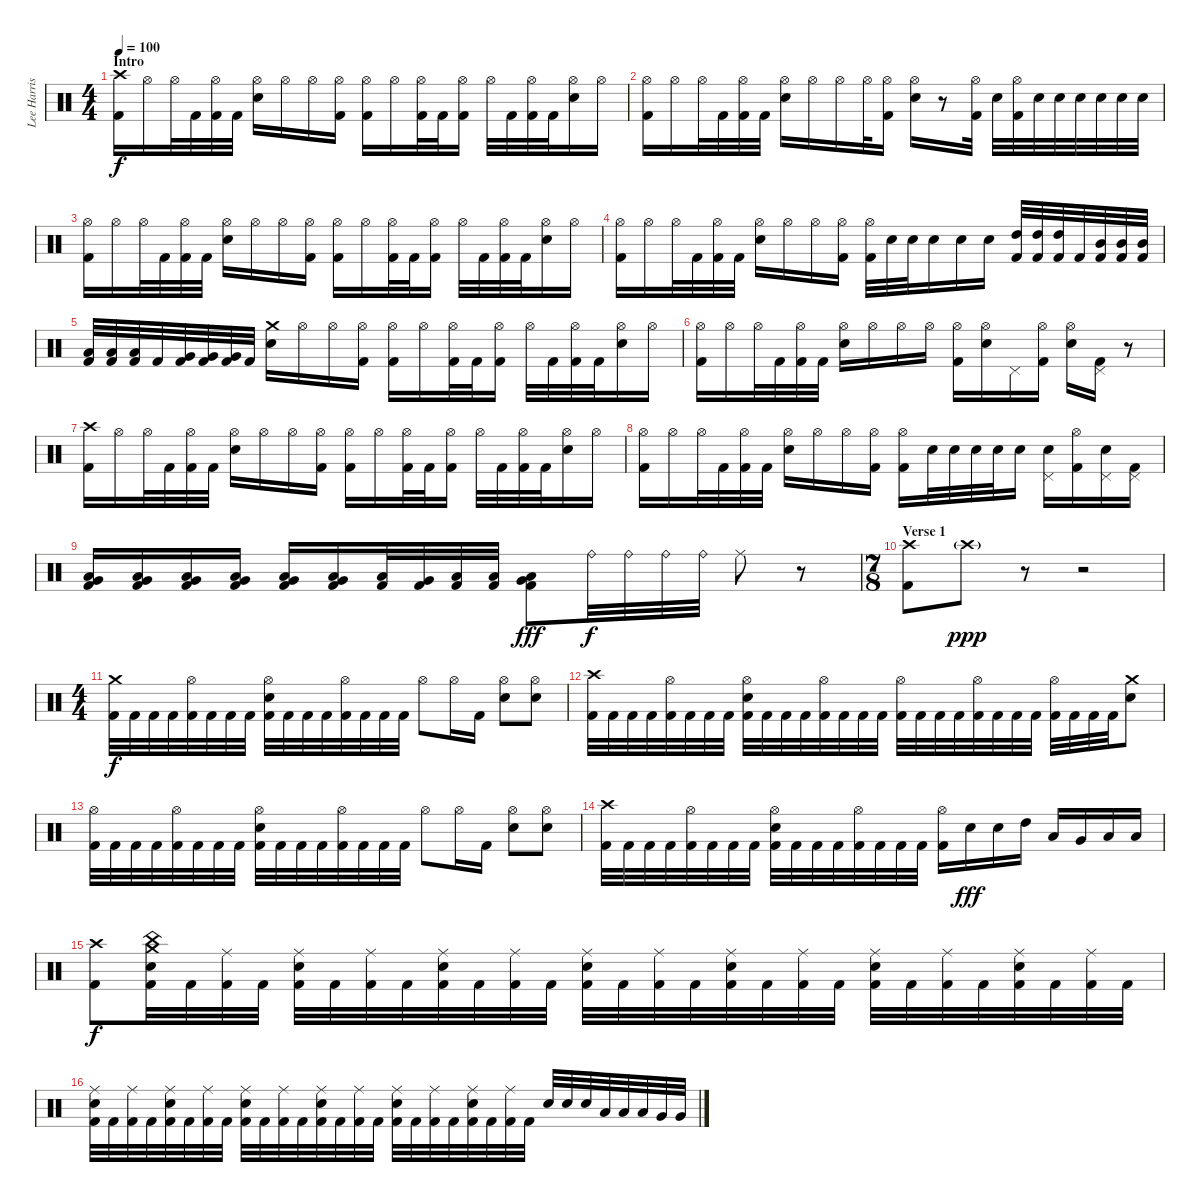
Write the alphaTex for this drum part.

\track ("Lee Harrison" "Lee Harris") {instrument percussion}
\staff {score}
\articulation defaults
\ts (4 4)
\section ("" "Intro")
\tempo 100
\clef neutral
\ks c
("Crash high (hit)" "Kick (hit) 2").16{dy f} "Hi-Hat (open)".16 "Hi-Hat (open)".32 "Kick (hit) 2".32 ("Hi-Hat (open)" "Kick (hit) 2").32 "Kick (hit) 2".32 ("Hi-Hat (open)" "Electric Snare (hit)").16 "Hi-Hat (open)".16 "Hi-Hat (open)".16 ("Hi-Hat (open)" "Kick (hit) 2").16 ("Hi-Hat (open)" "Kick (hit) 2").16 "Hi-Hat (open)".16 ("Hi-Hat (open)" "Kick (hit) 2").32 "Kick (hit) 2".32 ("Hi-Hat (open)" "Kick (hit) 2").16 "Hi-Hat (open)".32 "Kick (hit) 2".32 ("Hi-Hat (open)" "Kick (hit) 2").32 "Kick (hit) 2".32 ("Hi-Hat (open)" "Electric Snare (hit)").16 "Hi-Hat (open)".16 |
("Hi-Hat (open)" "Kick (hit) 2").16 "Hi-Hat (open)".16 "Hi-Hat (open)".32 "Kick (hit) 2".32 ("Hi-Hat (open)" "Kick (hit) 2").32 "Kick (hit) 2".32 ("Hi-Hat (open)" "Electric Snare (hit)").16 "Hi-Hat (open)".16 "Hi-Hat (open)".16 "Hi-Hat (open)".32 ("Hi-Hat (open)" "Kick (hit) 2").16 ("Hi-Hat (open)" "Electric Snare (hit)").16 r.8 ("Hi-Hat (open)" "Kick (hit) 2").32 "Electric Snare (hit)".32 ("Hi-Hat (open)" "Kick (hit) 2").32 "Electric Snare (hit)".32 "Electric Snare (hit)".32 "Electric Snare (hit)".32 "Electric Snare (hit)".32 "Electric Snare (hit)".32 "Electric Snare (hit)".32 |
("Hi-Hat (open)" "Kick (hit) 2").16 "Hi-Hat (open)".16 "Hi-Hat (open)".32 "Kick (hit) 2".32 ("Hi-Hat (open)" "Kick (hit) 2").32 "Kick (hit) 2".32 ("Hi-Hat (open)" "Electric Snare (hit)").16 "Hi-Hat (open)".16 "Hi-Hat (open)".16 ("Hi-Hat (open)" "Kick (hit) 2").16 ("Hi-Hat (open)" "Kick (hit) 2").16 "Hi-Hat (open)".16 ("Hi-Hat (open)" "Kick (hit) 2").32 "Kick (hit) 2".32 ("Hi-Hat (open)" "Kick (hit) 2").16 "Hi-Hat (open)".32 "Kick (hit) 2".32 ("Hi-Hat (open)" "Kick (hit) 2").32 "Kick (hit) 2".32 ("Hi-Hat (open)" "Electric Snare (hit)").16 "Hi-Hat (open)".16 |
("Hi-Hat (open)" "Kick (hit) 2").16 "Hi-Hat (open)".16 "Hi-Hat (open)".32 "Kick (hit) 2".32 ("Hi-Hat (open)" "Kick (hit) 2").32 "Kick (hit) 2".32 ("Hi-Hat (open)" "Electric Snare (hit)").16 "Hi-Hat (open)".16 "Hi-Hat (open)".16 ("Hi-Hat (open)" "Kick (hit) 2").16 ("Hi-Hat (open)" "Kick (hit) 2").32 "Electric Snare (hit)".32 "Electric Snare (hit)".32 "Electric Snare (hit)".16 "Electric Snare (hit)".16 "Electric Snare (hit)".16 ("High Tom (hit)" "Kick (hit) 2").32 ("High Tom (hit)" "Kick (hit) 2").32 ("High Tom (hit)" "Kick (hit) 2").32 "Kick (hit) 2".32 ("Mid Tom (hit)" "Kick (hit) 2").32 ("Mid Tom (hit)" "Kick (hit) 2").32 ("Mid Tom (hit)" "Kick (hit) 2").32 |
("Low Tom (hit)" "Kick (hit) 2").32 ("Low Tom (hit)" "Kick (hit) 2").32 ("Low Tom (hit)" "Kick (hit) 2").32 "Kick (hit) 2".32 ("Very Low Tom (hit)" "Kick (hit) 2").32 ("Very Low Tom (hit)" "Kick (hit) 2").32 ("Very Low Tom (hit)" "Kick (hit) 2").32 "Kick (hit) 2".32 ("Crash medium (hit)" "Electric Snare (hit)").16 "Hi-Hat (open)".16 "Hi-Hat (open)".16 ("Hi-Hat (open)" "Kick (hit) 2").16 ("Hi-Hat (open)" "Kick (hit) 2").16 "Hi-Hat (open)".16 ("Hi-Hat (open)" "Kick (hit) 2").32 "Kick (hit) 2".32 ("Hi-Hat (open)" "Kick (hit) 2").16 "Hi-Hat (open)".32 "Kick (hit) 2".32 ("Hi-Hat (open)" "Kick (hit) 2").32 "Kick (hit) 2".32 ("Hi-Hat (open)" "Electric Snare (hit)").16 "Hi-Hat (open)".16 |
("Hi-Hat (open)" "Kick (hit) 2").16 "Hi-Hat (open)".16 "Hi-Hat (open)".32 "Kick (hit) 2".32 ("Hi-Hat (open)" "Kick (hit) 2").32 "Kick (hit) 2".32 ("Hi-Hat (open)" "Electric Snare (hit)").16 "Hi-Hat (open)".16 "Hi-Hat (open)".16 "Hi-Hat (open)".16 ("Hi-Hat (open)" "Kick (hit) 2").16 ("Hi-Hat (open)" "Electric Snare (hit)").16 "Pedal Hi-Hat (hit)".16 ("Hi-Hat (open)" "Kick (hit) 2").16 ("Hi-Hat (open)" "Electric Snare (hit)").16 ("Pedal Hi-Hat (hit)" "Kick (hit) 2").16 r.8 |
("Crash high (hit)" "Kick (hit) 2").16 "Hi-Hat (open)".16 "Hi-Hat (open)".32 "Kick (hit) 2".32 ("Hi-Hat (open)" "Kick (hit) 2").32 "Kick (hit) 2".32 ("Hi-Hat (open)" "Electric Snare (hit)").16 "Hi-Hat (open)".16 "Hi-Hat (open)".16 ("Hi-Hat (open)" "Kick (hit) 2").16 ("Hi-Hat (open)" "Kick (hit) 2").16 "Hi-Hat (open)".16 ("Hi-Hat (open)" "Kick (hit) 2").32 "Kick (hit) 2".32 ("Hi-Hat (open)" "Kick (hit) 2").16 "Hi-Hat (open)".32 "Kick (hit) 2".32 ("Hi-Hat (open)" "Kick (hit) 2").32 "Kick (hit) 2".32 ("Hi-Hat (open)" "Electric Snare (hit)").16 "Hi-Hat (open)".16 |
("Hi-Hat (open)" "Kick (hit) 2").16 "Hi-Hat (open)".16 "Hi-Hat (open)".32 "Kick (hit) 2".32 ("Hi-Hat (open)" "Kick (hit) 2").32 "Kick (hit) 2".32 ("Hi-Hat (open)" "Electric Snare (hit)").16 "Hi-Hat (open)".16 "Hi-Hat (open)".16 ("Hi-Hat (open)" "Kick (hit) 2").16 ("Hi-Hat (open)" "Kick (hit) 2").16 "Electric Snare (hit)".32 "Electric Snare (hit)".32 "Electric Snare (hit)".32 "Electric Snare (hit)".32 "Electric Snare (hit)".16 ("Pedal Hi-Hat (hit)" "Electric Snare (hit)").16 ("Hi-Hat (open)" "Kick (hit) 2").16 ("Pedal Hi-Hat (hit)" "Electric Snare (hit)").16 ("Pedal Hi-Hat (hit)" "Kick (hit) 2").16 |
("Low Tom (hit)" "Very Low Tom (hit)" "Kick (hit) 2").16 ("Very Low Tom (hit)" "Low Floor Tom (hit)" "Kick (hit) 2").16 ("Low Tom (hit)" "Very Low Tom (hit)" "Kick (hit) 2").16 ("Very Low Tom (hit)" "Low Floor Tom (hit)" "Kick (hit) 2").16 ("Low Tom (hit)" "Very Low Tom (hit)" "Kick (hit) 2").16 ("Very Low Tom (hit)" "Low Floor Tom (hit)" "Kick (hit) 2").16 ("Low Tom (hit)" "Kick (hit) 2").32 ("Very Low Tom (hit)" "Kick (hit) 2").32 ("Low Floor Tom (hit)" "Kick (hit) 2").32 ("Low Floor Tom (hit)" "Kick (hit) 2").32 ("Very Low Tom (hit)" "Low Floor Tom (hit)" "Kick (hit) 2").8{dy fff} "Ride (bell)".32{dy f} "Ride (bell)".32 "Ride (bell)".32 "Ride (bell)".32 "Ride (middle)".8 r.8 |
\ts (7 8)
\section ("" "Verse 1")
("Crash high (hit)" "Kick (hit) 2").8 "Crash high (hit)"{g}.8{dy ppp} r.8{volume 0} r.2 |
\ts (4 4)
("Crash medium (hit)" "Kick (hit) 2").32{dy f volume 14} "Kick (hit) 2".32 "Kick (hit) 2".32 "Kick (hit) 2".32 ("Hi-Hat (open)" "Kick (hit) 2").32 "Kick (hit) 2".32 "Kick (hit) 2".32 "Kick (hit) 2".32 ("Hi-Hat (open)" "Electric Snare (hit)" "Kick (hit) 2").32 "Kick (hit) 2".32 "Kick (hit) 2".32 "Kick (hit) 2".32 ("Hi-Hat (open)" "Kick (hit) 2").32 "Kick (hit) 2".32 "Kick (hit) 2".32 "Kick (hit) 2".32 "Hi-Hat (open)".8 "Hi-Hat (open)".16 "Kick (hit) 2".16 ("Hi-Hat (open)" "Electric Snare (hit)").8 ("Hi-Hat (open)" "Electric Snare (hit)").8 |
("Crash high (hit)" "Kick (hit) 2").32 "Kick (hit) 2".32 "Kick (hit) 2".32 "Kick (hit) 2".32 ("Hi-Hat (open)" "Kick (hit) 2").32 "Kick (hit) 2".32 "Kick (hit) 2".32 "Kick (hit) 2".32 ("Hi-Hat (open)" "Electric Snare (hit)" "Kick (hit) 2").32 "Kick (hit) 2".32 "Kick (hit) 2".32 "Kick (hit) 2".32 ("Hi-Hat (open)" "Kick (hit) 2").32 "Kick (hit) 2".32 "Kick (hit) 2".32 "Kick (hit) 2".32 ("Hi-Hat (open)" "Kick (hit) 2").32 "Kick (hit) 2".32 "Kick (hit) 2".32 "Kick (hit) 2".32 ("Hi-Hat (open)" "Kick (hit) 2").32 "Kick (hit) 2".32 "Kick (hit) 2".32 "Kick (hit) 2".32 ("Hi-Hat (open)" "Kick (hit) 2").32 "Kick (hit) 2".32 "Kick (hit) 2".32 "Kick (hit) 2".32 ("Crash medium (hit)" "Electric Snare (hit)").8 |
("Hi-Hat (open)" "Kick (hit) 2").32 "Kick (hit) 2".32 "Kick (hit) 2".32 "Kick (hit) 2".32 ("Hi-Hat (open)" "Kick (hit) 2").32 "Kick (hit) 2".32 "Kick (hit) 2".32 "Kick (hit) 2".32 ("Hi-Hat (open)" "Electric Snare (hit)" "Kick (hit) 2").32 "Kick (hit) 2".32 "Kick (hit) 2".32 "Kick (hit) 2".32 ("Hi-Hat (open)" "Kick (hit) 2").32 "Kick (hit) 2".32 "Kick (hit) 2".32 "Kick (hit) 2".32 "Hi-Hat (open)".8 "Hi-Hat (open)".16 "Kick (hit) 2".16 ("Hi-Hat (open)" "Electric Snare (hit)").8 ("Hi-Hat (open)" "Electric Snare (hit)").8 |
("Crash high (hit)" "Kick (hit) 2").32 "Kick (hit) 2".32 "Kick (hit) 2".32 "Kick (hit) 2".32 ("Hi-Hat (open)" "Kick (hit) 2").32 "Kick (hit) 2".32 "Kick (hit) 2".32 "Kick (hit) 2".32 ("Hi-Hat (open)" "Electric Snare (hit)" "Kick (hit) 2").32 "Kick (hit) 2".32 "Kick (hit) 2".32 "Kick (hit) 2".32 ("Hi-Hat (open)" "Kick (hit) 2").32 "Kick (hit) 2".32 "Kick (hit) 2".32 "Kick (hit) 2".32 ("Hi-Hat (open)" "Kick (hit) 2").16 "Electric Snare (hit)".16{dy fff} "Electric Snare (hit)".16 "High Tom (hit)".16 "Low Tom (hit)".16 "Very Low Tom (hit)".16 "Low Floor Tom (hit)".16 "Low Floor Tom (hit)".16 |
("Crash high (hit)" "Kick (hit) 2").8{dy f} ("Crash medium (hit)" "China (hit)" "Electric Snare (hit)" "Kick (hit) 2").32 "Kick (hit) 2".32 ("Ride (middle)" "Kick (hit) 2").32 "Kick (hit) 2".32 ("Ride (middle)" "Electric Snare (hit)" "Kick (hit) 2").32 "Kick (hit) 2".32 ("Ride (middle)" "Kick (hit) 2").32 "Kick (hit) 2".32 ("Ride (middle)" "Electric Snare (hit)" "Kick (hit) 2").32 "Kick (hit) 2".32 ("Ride (middle)" "Kick (hit) 2").32 "Kick (hit) 2".32 ("Ride (middle)" "Electric Snare (hit)" "Kick (hit) 2").32 "Kick (hit) 2".32 ("Ride (middle)" "Kick (hit) 2").32 "Kick (hit) 2".32 ("Ride (middle)" "Electric Snare (hit)" "Kick (hit) 2").32 "Kick (hit) 2".32 ("Ride (middle)" "Kick (hit) 2").32 "Kick (hit) 2".32 ("Ride (middle)" "Electric Snare (hit)" "Kick (hit) 2").32 "Kick (hit) 2".32 ("Ride (middle)" "Kick (hit) 2").32 "Kick (hit) 2".32 ("Ride (middle)" "Electric Snare (hit)" "Kick (hit) 2").32 "Kick (hit) 2".32 ("Ride (middle)" "Kick (hit) 2").32 "Kick (hit) 2".32 |
("Ride (middle)" "Electric Snare (hit)" "Kick (hit) 2").32 "Kick (hit) 2".32 ("Ride (middle)" "Kick (hit) 2").32 "Kick (hit) 2".32 ("Ride (middle)" "Electric Snare (hit)" "Kick (hit) 2").32 "Kick (hit) 2".32 ("Ride (middle)" "Kick (hit) 2").32 "Kick (hit) 2".32 ("Ride (middle)" "Electric Snare (hit)" "Kick (hit) 2").32 "Kick (hit) 2".32 ("Ride (middle)" "Kick (hit) 2").32 "Kick (hit) 2".32 ("Ride (middle)" "Electric Snare (hit)" "Kick (hit) 2").32 "Kick (hit) 2".32 ("Ride (middle)" "Kick (hit) 2").32 "Kick (hit) 2".32 ("Ride (middle)" "Electric Snare (hit)" "Kick (hit) 2").32 "Kick (hit) 2".32 ("Ride (middle)" "Kick (hit) 2").32 "Kick (hit) 2".32 ("Ride (middle)" "Electric Snare (hit)" "Kick (hit) 2").32 "Kick (hit) 2".32 ("Ride (middle)" "Kick (hit) 2").32 "Kick (hit) 2".32 "Electric Snare (hit)".32 "Electric Snare (hit)".32 "Electric Snare (hit)".32 "Low Tom (hit)".32 "Low Tom (hit)".32 "Low Tom (hit)".32 "Very Low Tom (hit)".32 "Very Low Tom (hit)".32
